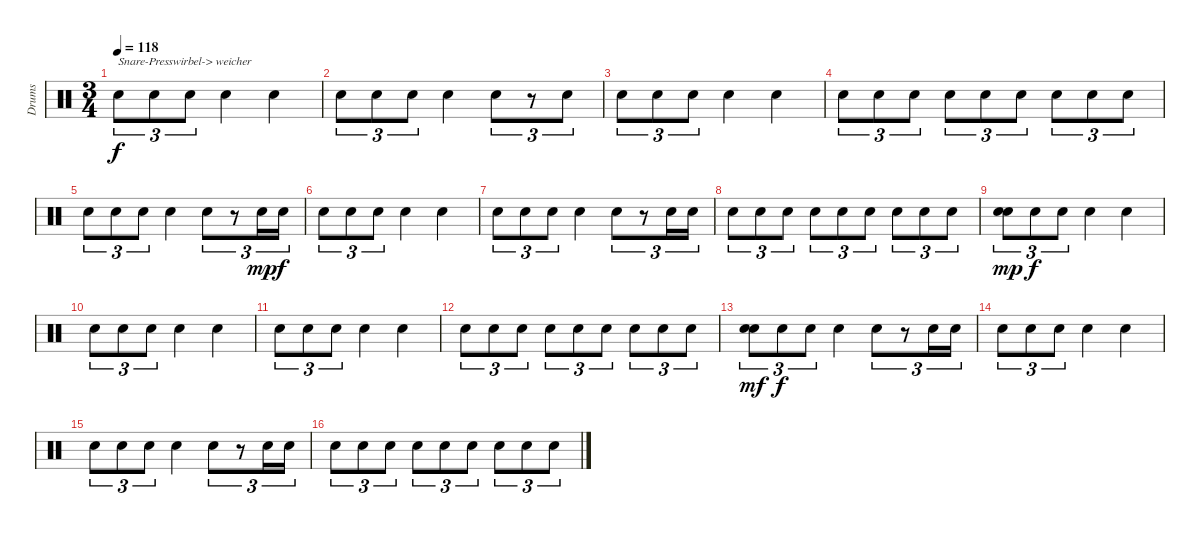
\track ("Drums" "Drums") {instrument percussion}
\staff {score}
\articulation defaults
\ts (3 4)
\tempo 118
\clef neutral
\ks c "Electric Snare (hit)".8{tu (3 2) txt "Snare-Presswirbel-> weicher" dy f} "Electric Snare (hit)".8{tu (3 2)} "Electric Snare (hit)".8{tu (3 2)} "Electric Snare (hit)".4 "Electric Snare (hit)".4
|
"Electric Snare (hit)".8{tu (3 2)} "Electric Snare (hit)".8{tu (3 2)} "Electric Snare (hit)".8{tu (3 2)} "Electric Snare (hit)".4 "Electric Snare (hit)".8{tu (3 2)} r.8{tu (3 2)} "Electric Snare (hit)".8{tu (3 2)} |
"Electric Snare (hit)".8{tu (3 2)} "Electric Snare (hit)".8{tu (3 2)} "Electric Snare (hit)".8{tu (3 2)} "Electric Snare (hit)".4 "Electric Snare (hit)".4 |
"Electric Snare (hit)".8{tu (3 2)} "Electric Snare (hit)".8{tu (3 2)} "Electric Snare (hit)".8{tu (3 2)} "Electric Snare (hit)".8{tu (3 2)} "Electric Snare (hit)".8{tu (3 2)} "Electric Snare (hit)".8{tu (3 2)} "Electric Snare (hit)".8{tu (3 2)} "Electric Snare (hit)".8{tu (3 2)} "Electric Snare (hit)".8{tu (3 2)} |
"Electric Snare (hit)".8{tu (3 2)} "Electric Snare (hit)".8{tu (3 2)} "Electric Snare (hit)".8{tu (3 2)} "Electric Snare (hit)".4 "Electric Snare (hit)".8{tu (3 2)} r.8{tu (3 2)} "Electric Snare (hit)".16{tu (3 2) dy mp} "Electric Snare (hit)".16{tu (3 2) dy f} |
"Electric Snare (hit)".8{tu (3 2)} "Electric Snare (hit)".8{tu (3 2)} "Electric Snare (hit)".8{tu (3 2)} "Electric Snare (hit)".4 "Electric Snare (hit)".4 |
"Electric Snare (hit)".8{tu (3 2)} "Electric Snare (hit)".8{tu (3 2)} "Electric Snare (hit)".8{tu (3 2)} "Electric Snare (hit)".4 "Electric Snare (hit)".8{tu (3 2)} r.8{tu (3 2)} "Electric Snare (hit)".16{tu (3 2)} "Electric Snare (hit)".16{tu (3 2)} |
"Electric Snare (hit)".8{tu (3 2)} "Electric Snare (hit)".8{tu (3 2)} "Electric Snare (hit)".8{tu (3 2)} "Electric Snare (hit)".8{tu (3 2)} "Electric Snare (hit)".8{tu (3 2)} "Electric Snare (hit)".8{tu (3 2)} "Electric Snare (hit)".8{tu (3 2)} "Electric Snare (hit)".8{tu (3 2)} "Electric Snare (hit)".8{tu (3 2)} |
("Electric Snare (hit)" "Snare (hit) 2").8{tu (3 2) dy mp} "Electric Snare (hit)".8{tu (3 2) dy f} "Electric Snare (hit)".8{tu (3 2)} "Electric Snare (hit)".4 "Electric Snare (hit)".4 |
"Electric Snare (hit)".8{tu (3 2)} "Electric Snare (hit)".8{tu (3 2)} "Electric Snare (hit)".8{tu (3 2)} "Electric Snare (hit)".4 "Electric Snare (hit)".4 |
"Electric Snare (hit)".8{tu (3 2)} "Electric Snare (hit)".8{tu (3 2)} "Electric Snare (hit)".8{tu (3 2)} "Electric Snare (hit)".4 "Electric Snare (hit)".4 |
"Electric Snare (hit)".8{tu (3 2)} "Electric Snare (hit)".8{tu (3 2)} "Electric Snare (hit)".8{tu (3 2)} "Electric Snare (hit)".8{tu (3 2)} "Electric Snare (hit)".8{tu (3 2)} "Electric Snare (hit)".8{tu (3 2)} "Electric Snare (hit)".8{tu (3 2)} "Electric Snare (hit)".8{tu (3 2)} "Electric Snare (hit)".8{tu (3 2)} |
("Electric Snare (hit)" "Snare (hit) 2").8{tu (3 2) dy mf} "Electric Snare (hit)".8{tu (3 2) dy f} "Electric Snare (hit)".8{tu (3 2)} "Electric Snare (hit)".4 "Electric Snare (hit)".8{tu (3 2)} r.8{tu (3 2)} "Electric Snare (hit)".16{tu (3 2)} "Electric Snare (hit)".16{tu (3 2)} |
"Electric Snare (hit)".8{tu (3 2)} "Electric Snare (hit)".8{tu (3 2)} "Electric Snare (hit)".8{tu (3 2)} "Electric Snare (hit)".4 "Electric Snare (hit)".4 |
"Electric Snare (hit)".8{tu (3 2)} "Electric Snare (hit)".8{tu (3 2)} "Electric Snare (hit)".8{tu (3 2)} "Electric Snare (hit)".4 "Electric Snare (hit)".8{tu (3 2)} r.8{tu (3 2)} "Electric Snare (hit)".16{tu (3 2)} "Electric Snare (hit)".16{tu (3 2)} |
"Electric Snare (hit)".8{tu (3 2)} "Electric Snare (hit)".8{tu (3 2)} "Electric Snare (hit)".8{tu (3 2)} "Electric Snare (hit)".8{tu (3 2)} "Electric Snare (hit)".8{tu (3 2)} "Electric Snare (hit)".8{tu (3 2)} "Electric Snare (hit)".8{tu (3 2)} "Electric Snare (hit)".8{tu (3 2)} "Electric Snare (hit)".8{tu (3 2)}
